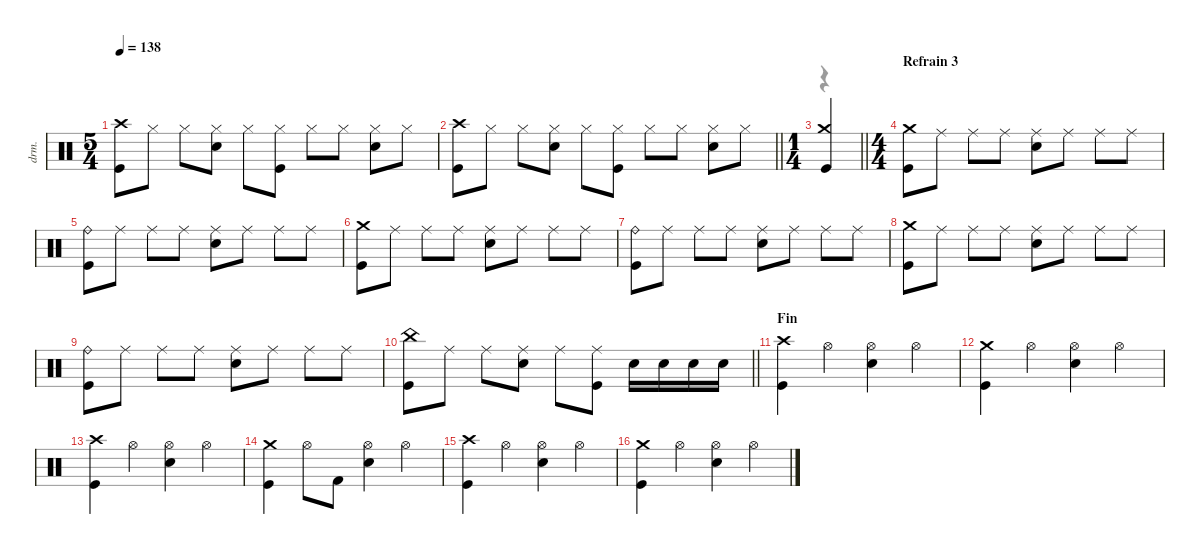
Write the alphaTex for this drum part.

\defaultSystemsLayout 4
\hideDynamics
\bracketExtendMode nobrackets
\track ("Percussions" "drm.") {instrument percussion}
\staff {score}
\articulation defaults
\voice
\ts (5 4)
\tempo 138
\clef neutral
\ks aminor
("Crash high (hit)" "Kick (hit)").8{dy f beam Down} "Hi-Hat (closed)".8{beam Down} "Hi-Hat (closed)".8{beam Down} ("Hi-Hat (closed)" "Snare (hit) 2").8{beam Down} "Hi-Hat (closed)".8{beam Down} ("Hi-Hat (closed)" "Kick (hit)").8{beam Down} "Hi-Hat (closed)".8{beam Down} "Hi-Hat (closed)".8{beam Down} ("Hi-Hat (closed)" "Snare (hit) 2").8{beam Down} "Hi-Hat (closed)".8{beam Down} |
\barLineRight lightlight
("Crash high (hit)" "Kick (hit)").8{beam Down} "Hi-Hat (closed)".8{beam Down} "Hi-Hat (closed)".8{beam Down} ("Hi-Hat (closed)" "Snare (hit) 2").8{beam Down} "Hi-Hat (closed)".8{beam Down} ("Hi-Hat (closed)" "Kick (hit)").8{beam Down} "Hi-Hat (closed)".8{beam Down} "Hi-Hat (closed)".8{beam Down} ("Hi-Hat (closed)" "Snare (hit) 2").8{beam Down} "Hi-Hat (closed)".8{beam Down} |
\ts (1 4)
\beaming (8 2)
\barLineRight lightlight
("Kick (hit)" "Crash medium (hit)").4{beam Up} |
\ts (4 4)
\beaming (8 2 2 2 2)
\section ("" "Refrain 3")
("Crash medium (hit)" "Kick (hit)").8{beam Down} "Ride (middle)".8{beam Down} "Ride (middle)".8{beam Down} "Ride (middle)".8{beam Down} ("Ride (middle)" "Snare (hit) 2").8{beam Down} "Ride (middle)".8{beam Down} "Ride (middle)".8{beam Down} "Ride (middle)".8{beam Down} |
("Ride (bell)" "Kick (hit)").8{beam Down} "Ride (middle)".8{beam Down} "Ride (middle)".8{beam Down} "Ride (middle)".8{beam Down} ("Ride (middle)" "Snare (hit) 2").8{beam Down} "Ride (middle)".8{beam Down} "Ride (middle)".8{beam Down} "Ride (middle)".8{beam Down} |
("Crash medium (hit)" "Kick (hit)").8{beam Down} "Ride (middle)".8{beam Down} "Ride (middle)".8{beam Down} "Ride (middle)".8{beam Down} ("Ride (middle)" "Snare (hit) 2").8{beam Down} "Ride (middle)".8{beam Down} "Ride (middle)".8{beam Down} "Ride (middle)".8{beam Down} |
("Ride (bell)" "Kick (hit)").8{beam Down} "Ride (middle)".8{beam Down} "Ride (middle)".8{beam Down} "Ride (middle)".8{beam Down} ("Ride (middle)" "Snare (hit) 2").8{beam Down} "Ride (middle)".8{beam Down} "Ride (middle)".8{beam Down} "Ride (middle)".8{beam Down} |
("Crash medium (hit)" "Kick (hit)").8{beam Down} "Ride (middle)".8{beam Down} "Ride (middle)".8{beam Down} "Ride (middle)".8{beam Down} ("Ride (middle)" "Snare (hit) 2").8{beam Down} "Ride (middle)".8{beam Down} "Ride (middle)".8{beam Down} "Ride (middle)".8{beam Down} |
("Ride (bell)" "Kick (hit)").8{beam Down} "Ride (middle)".8{beam Down} "Ride (middle)".8{beam Down} "Ride (middle)".8{beam Down} ("Ride (middle)" "Snare (hit) 2").8{beam Down} "Ride (middle)".8{beam Down} "Ride (middle)".8{beam Down} "Ride (middle)".8{beam Down} |
\barLineRight lightlight
("China (hit)" "Kick (hit)").8{beam Down} "Ride (middle)".8{beam Down} "Ride (middle)".8{beam Down} ("Ride (middle)" "Snare (hit) 2").8{beam Down} "Ride (middle)".8{beam Down} ("Ride (middle)" "Kick (hit)").8{beam Down} "Snare (hit) 2".16{beam Down} "Snare (hit) 2".16{beam Down} "Snare (hit) 2".16{beam Down} "Snare (hit) 2".16{beam Down} |
\section ("" "Fin")
("Crash high (hit)" "Kick (hit)").4{beam Down} "Hi-Hat (open)".4{beam Down} ("Hi-Hat (open)" "Snare (hit) 2").4{beam Down} "Hi-Hat (open)".4{beam Down} |
("Crash medium (hit)" "Kick (hit)").4{beam Down} "Hi-Hat (open)".4{beam Down} ("Hi-Hat (open)" "Snare (hit) 2").4{beam Down} "Hi-Hat (open)".4{beam Down} |
("Crash high (hit)" "Kick (hit)").4{beam Down} "Hi-Hat (open)".4{beam Down} ("Hi-Hat (open)" "Snare (hit) 2").4{beam Down} "Hi-Hat (open)".4{beam Down} |
("Crash medium (hit)" "Kick (hit)").4{beam Down} "Hi-Hat (open)".8{beam Down} "Kick (hit) 2".8{beam Down} ("Hi-Hat (open)" "Snare (hit) 2").4{beam Down} "Hi-Hat (open)".4{beam Down} |
("Crash high (hit)" "Kick (hit)").4{beam Down} "Hi-Hat (open)".4{beam Down} ("Hi-Hat (open)" "Snare (hit) 2").4{beam Down} "Hi-Hat (open)".4{beam Down} |
("Crash medium (hit)" "Kick (hit)").4{beam Down} "Hi-Hat (open)".4{beam Down} ("Hi-Hat (open)" "Snare (hit) 2").4{beam Down} "Hi-Hat (open)".4{beam Down}
\voice
\clef neutral
\ottava regular
\simile none
\ks aminor
|
\barLineRight lightlight
|
\barLineRight lightlight
r.4{dy mf beam Down} |
|
|
|
|
|
|
\barLineRight lightlight
|
|
|
|
|
|
